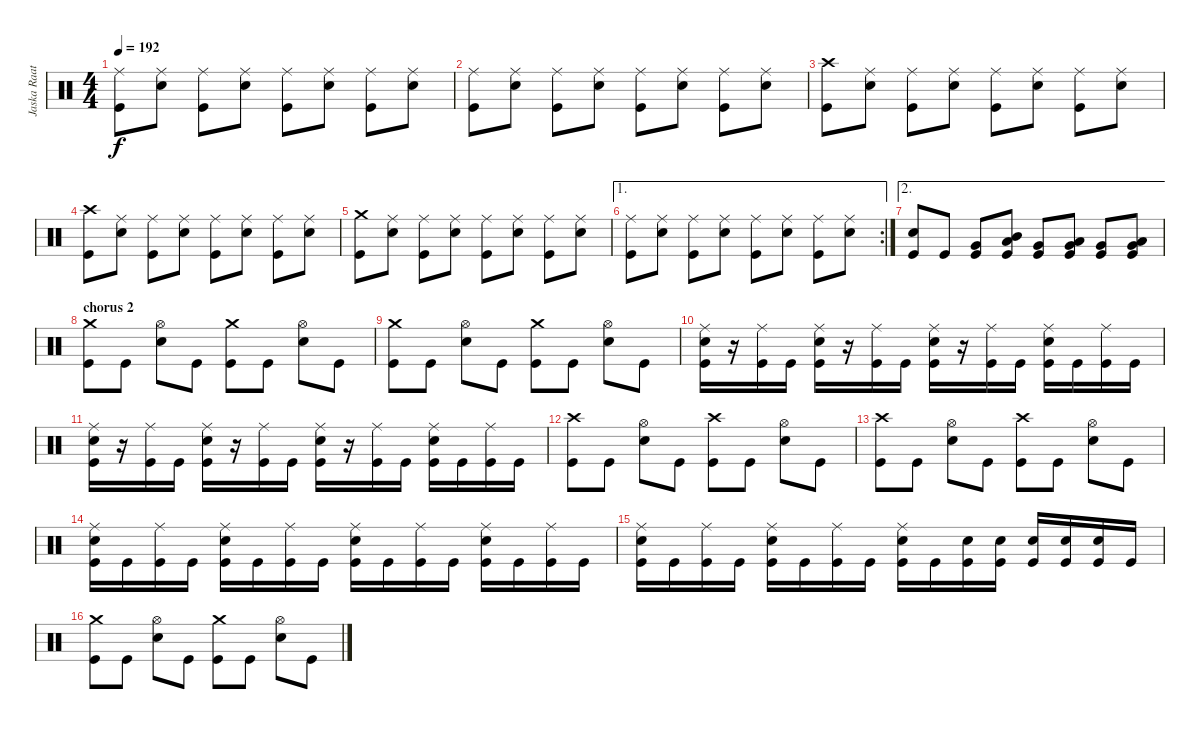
\track ("Jaska Raatikainen" "Jaska Raat") {instrument percussion}
\staff {score}
\articulation defaults
\ts (4 4)
\tempo 192
\clef neutral
\ks c
("Ride (middle)" "Kick (hit)").8{dy f} ("Ride (middle)" "Electric Snare (hit)").8 ("Ride (middle)" "Kick (hit)").8 ("Ride (middle)" "Electric Snare (hit)").8 ("Ride (middle)" "Kick (hit)").8 ("Ride (middle)" "Electric Snare (hit)").8 ("Ride (middle)" "Kick (hit)").8 ("Ride (middle)" "Electric Snare (hit)").8 |
("Ride (middle)" "Kick (hit)").8 ("Ride (middle)" "Electric Snare (hit)").8 ("Ride (middle)" "Kick (hit)").8 ("Ride (middle)" "Electric Snare (hit)").8 ("Ride (middle)" "Kick (hit)").8 ("Ride (middle)" "Electric Snare (hit)").8 ("Ride (middle)" "Kick (hit)").8 ("Ride (middle)" "Electric Snare (hit)").8 |
("Crash high (hit)" "Kick (hit)").8 ("Ride (middle)" "Electric Snare (hit)").8 ("Ride (middle)" "Kick (hit)").8 ("Ride (middle)" "Electric Snare (hit)").8 ("Ride (middle)" "Kick (hit)").8 ("Ride (middle)" "Electric Snare (hit)").8 ("Ride (middle)" "Kick (hit)").8 ("Ride (middle)" "Electric Snare (hit)").8 |
("Crash high (hit)" "Kick (hit)").8 ("Ride (middle)" "Electric Snare (hit)").8 ("Ride (middle)" "Kick (hit)").8 ("Ride (middle)" "Electric Snare (hit)").8 ("Ride (middle)" "Kick (hit)").8 ("Ride (middle)" "Electric Snare (hit)").8 ("Ride (middle)" "Kick (hit)").8 ("Ride (middle)" "Electric Snare (hit)").8 |
("Crash medium (hit)" "Kick (hit)").8 ("Ride (middle)" "Electric Snare (hit)").8 ("Ride (middle)" "Kick (hit)").8 ("Ride (middle)" "Electric Snare (hit)").8 ("Ride (middle)" "Kick (hit)").8 ("Ride (middle)" "Electric Snare (hit)").8 ("Ride (middle)" "Kick (hit)").8 ("Ride (middle)" "Electric Snare (hit)").8 |
\ae 1
\rc 2
("Ride (middle)" "Kick (hit)").8 ("Ride (middle)" "Electric Snare (hit)").8 ("Ride (middle)" "Kick (hit)").8 ("Ride (middle)" "Electric Snare (hit)").8 ("Ride (middle)" "Kick (hit)").8 ("Ride (middle)" "Electric Snare (hit)").8 ("Ride (middle)" "Kick (hit)").8 ("Ride (middle)" "Electric Snare (hit)").8 |
\ae 2
("Electric Snare (hit)" "Kick (hit)").8 "Kick (hit)".8 ("Very Low Tom (hit)" "Kick (hit)").8 ("Mid Tom (hit)" "Low Tom (hit)" "Kick (hit)").8 ("Very Low Tom (hit)" "Kick (hit)").8 ("Low Tom (hit)" "Very Low Tom (hit)" "Kick (hit)").8 ("Very Low Tom (hit)" "Kick (hit)").8 ("Very Low Tom (hit)" "Low Floor Tom (hit)" "Kick (hit)").8 |
\section ("" "chorus 2")
("Crash medium (hit)" "Kick (hit)").8 "Kick (hit)".8 ("Hi-Hat (open)" "Electric Snare (hit)").8 "Kick (hit)".8 ("Crash medium (hit)" "Kick (hit)").8 "Kick (hit)".8 ("Hi-Hat (open)" "Electric Snare (hit)").8 "Kick (hit)".8 |
("Crash medium (hit)" "Kick (hit)").8 "Kick (hit)".8 ("Hi-Hat (open)" "Electric Snare (hit)").8 "Kick (hit)".8 ("Crash medium (hit)" "Kick (hit)").8 "Kick (hit)".8 ("Hi-Hat (open)" "Electric Snare (hit)").8 "Kick (hit)".8 |
("Ride (middle)" "Electric Snare (hit)" "Kick (hit)").16 r.16 ("Ride (middle)" "Kick (hit)").16 "Kick (hit)".16 ("Ride (middle)" "Electric Snare (hit)" "Kick (hit)").16 r.16 ("Ride (middle)" "Kick (hit)").16 "Kick (hit)".16 ("Ride (middle)" "Electric Snare (hit)" "Kick (hit)").16 r.16 ("Ride (middle)" "Kick (hit)").16 "Kick (hit)".16 ("Ride (middle)" "Electric Snare (hit)" "Kick (hit)").16 "Kick (hit)".16 ("Ride (middle)" "Kick (hit)").16 "Kick (hit)".16 |
("Ride (middle)" "Electric Snare (hit)" "Kick (hit)").16 r.16 ("Ride (middle)" "Kick (hit)").16 "Kick (hit)".16 ("Ride (middle)" "Electric Snare (hit)" "Kick (hit)").16 r.16 ("Ride (middle)" "Kick (hit)").16 "Kick (hit)".16 ("Ride (middle)" "Electric Snare (hit)" "Kick (hit)").16 r.16 ("Ride (middle)" "Kick (hit)").16 "Kick (hit)".16 ("Ride (middle)" "Electric Snare (hit)" "Kick (hit)").16 "Kick (hit)".16 ("Ride (middle)" "Kick (hit)").16 "Kick (hit)".16 |
("Crash high (hit)" "Kick (hit)").8 "Kick (hit)".8 ("Hi-Hat (open)" "Electric Snare (hit)").8 "Kick (hit)".8 ("Crash high (hit)" "Kick (hit)").8 "Kick (hit)".8 ("Hi-Hat (open)" "Electric Snare (hit)").8 "Kick (hit)".8 |
("Crash high (hit)" "Kick (hit)").8 "Kick (hit)".8 ("Hi-Hat (open)" "Electric Snare (hit)").8 "Kick (hit)".8 ("Crash high (hit)" "Kick (hit)").8 "Kick (hit)".8 ("Hi-Hat (open)" "Electric Snare (hit)").8 "Kick (hit)".8 |
("Ride (middle)" "Electric Snare (hit)" "Kick (hit)").16 "Kick (hit)".16 ("Ride (middle)" "Kick (hit)").16 "Kick (hit)".16 ("Ride (middle)" "Electric Snare (hit)" "Kick (hit)").16 "Kick (hit)".16 ("Ride (middle)" "Kick (hit)").16 "Kick (hit)".16 ("Ride (middle)" "Electric Snare (hit)" "Kick (hit)").16 "Kick (hit)".16 ("Ride (middle)" "Kick (hit)").16 "Kick (hit)".16 ("Ride (middle)" "Electric Snare (hit)" "Kick (hit)").16 "Kick (hit)".16 ("Ride (middle)" "Kick (hit)").16 "Kick (hit)".16 |
("Ride (middle)" "Electric Snare (hit)" "Kick (hit)").16 "Kick (hit)".16 ("Ride (middle)" "Kick (hit)").16 "Kick (hit)".16 ("Ride (middle)" "Electric Snare (hit)" "Kick (hit)").16 "Kick (hit)".16 ("Ride (middle)" "Kick (hit)").16 "Kick (hit)".16 ("Ride (middle)" "Electric Snare (hit)" "Kick (hit)").16 "Kick (hit)".16 ("Electric Snare (hit)" "Kick (hit)").16 ("Electric Snare (hit)" "Kick (hit)").16 ("Electric Snare (hit)" "Kick (hit)").16 ("Electric Snare (hit)" "Kick (hit)").16 ("Electric Snare (hit)" "Kick (hit)").16 "Kick (hit)".16 |
("Crash medium (hit)" "Kick (hit)").8 "Kick (hit)".8 ("Hi-Hat (open)" "Electric Snare (hit)").8 "Kick (hit)".8 ("Crash medium (hit)" "Kick (hit)").8 "Kick (hit)".8 ("Hi-Hat (open)" "Electric Snare (hit)").8 "Kick (hit)".8
